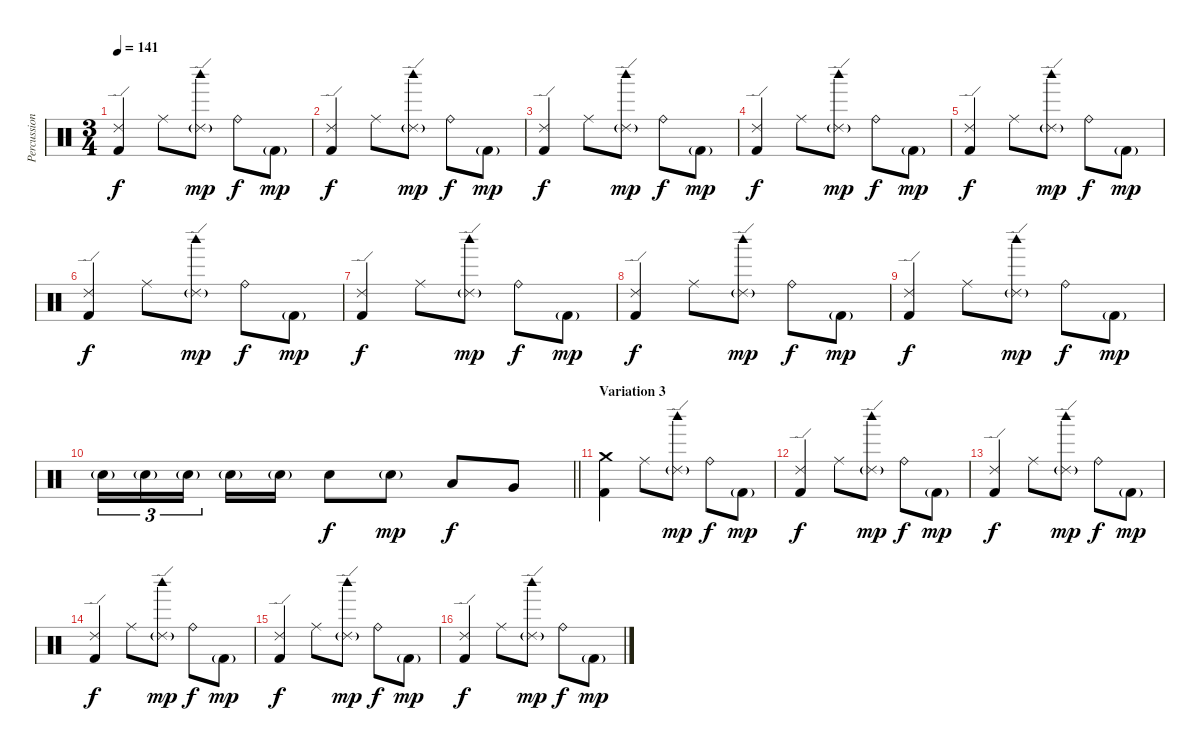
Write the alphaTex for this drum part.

\track ("Percussion" "Percussion") {instrument percussion}
\staff {score}
\articulation defaults
\ts (3 4)
\tempo 141
\clef neutral
\ks c
("Ride (edge) 2" "Kick (hit) 2").4{dy f} "Ride (middle)".8 ("Ride (edge) 2"{g} "Woodblock high (hit)").8{dy mp} "Ride (bell)".8{dy f} "Kick (hit) 2"{g}.8{dy mp} |
("Ride (edge) 2" "Kick (hit) 2").4{dy f} "Ride (middle)".8 ("Ride (edge) 2"{g} "Woodblock high (hit)").8{dy mp} "Ride (bell)".8{dy f} "Kick (hit) 2"{g}.8{dy mp} |
("Ride (edge) 2" "Kick (hit) 2").4{dy f} "Ride (middle)".8 ("Ride (edge) 2"{g} "Woodblock high (hit)").8{dy mp} "Ride (bell)".8{dy f} "Kick (hit) 2"{g}.8{dy mp} |
("Ride (edge) 2" "Kick (hit) 2").4{dy f} "Ride (middle)".8 ("Ride (edge) 2"{g} "Woodblock high (hit)").8{dy mp} "Ride (bell)".8{dy f} "Kick (hit) 2"{g}.8{dy mp} |
("Ride (edge) 2" "Kick (hit) 2").4{dy f} "Ride (middle)".8 ("Ride (edge) 2"{g} "Woodblock high (hit)").8{dy mp} "Ride (bell)".8{dy f} "Kick (hit) 2"{g}.8{dy mp} |
("Ride (edge) 2" "Kick (hit) 2").4{dy f} "Ride (middle)".8 ("Ride (edge) 2"{g} "Woodblock high (hit)").8{dy mp} "Ride (bell)".8{dy f} "Kick (hit) 2"{g}.8{dy mp} |
("Ride (edge) 2" "Kick (hit) 2").4{dy f} "Ride (middle)".8 ("Ride (edge) 2"{g} "Woodblock high (hit)").8{dy mp} "Ride (bell)".8{dy f} "Kick (hit) 2"{g}.8{dy mp} |
("Ride (edge) 2" "Kick (hit) 2").4{dy f} "Ride (middle)".8 ("Ride (edge) 2"{g} "Woodblock high (hit)").8{dy mp} "Ride (bell)".8{dy f} "Kick (hit) 2"{g}.8{dy mp} |
("Ride (edge) 2" "Kick (hit) 2").4{dy f} "Ride (middle)".8 ("Ride (edge) 2"{g} "Woodblock high (hit)").8{dy mp} "Ride (bell)".8{dy f} "Kick (hit) 2"{g}.8{dy mp} |
\barLineRight lightlight "Electric Snare (hit)"{g}.16{tu (3 2)} "Electric Snare (hit)"{g}.16{tu (3 2)} "Electric Snare (hit)"{g}.16{tu (3 2) beam splitsecondary} "Electric Snare (hit)"{g}.16 "Electric Snare (hit)"{g}.16 "Electric Snare (hit)".8{dy f} "Electric Snare (hit)"{g}.8{dy mp} "Low Tom (hit)".8{dy f} "Very Low Tom (hit)".8
|
\section ("" "Variation 3")
("Crash medium (hit)" "Kick (hit) 2").4 "Ride (middle)".8 ("Ride (edge) 2"{g} "Woodblock high (hit)").8{dy mp} "Ride (bell)".8{dy f} "Kick (hit) 2"{g}.8{dy mp} |
("Ride (edge) 2" "Kick (hit) 2").4{dy f} "Ride (middle)".8 ("Ride (edge) 2"{g} "Woodblock high (hit)").8{dy mp} "Ride (bell)".8{dy f} "Kick (hit) 2"{g}.8{dy mp} |
("Ride (edge) 2" "Kick (hit) 2").4{dy f} "Ride (middle)".8 ("Ride (edge) 2"{g} "Woodblock high (hit)").8{dy mp} "Ride (bell)".8{dy f} "Kick (hit) 2"{g}.8{dy mp} |
("Ride (edge) 2" "Kick (hit) 2").4{dy f} "Ride (middle)".8 ("Ride (edge) 2"{g} "Woodblock high (hit)").8{dy mp} "Ride (bell)".8{dy f} "Kick (hit) 2"{g}.8{dy mp} |
("Ride (edge) 2" "Kick (hit) 2").4{dy f} "Ride (middle)".8 ("Ride (edge) 2"{g} "Woodblock high (hit)").8{dy mp} "Ride (bell)".8{dy f} "Kick (hit) 2"{g}.8{dy mp} |
("Ride (edge) 2" "Kick (hit) 2").4{dy f} "Ride (middle)".8 ("Ride (edge) 2"{g} "Woodblock high (hit)").8{dy mp} "Ride (bell)".8{dy f} "Kick (hit) 2"{g}.8{dy mp}
